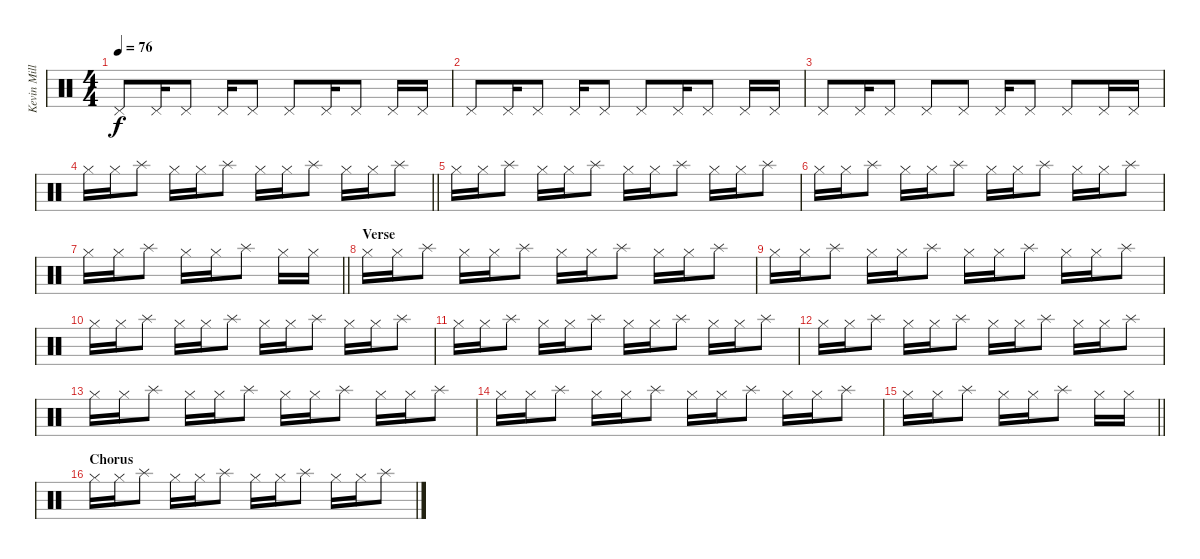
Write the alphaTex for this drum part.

\track ("Kevin Miller (Drums)" "Kevin Mill") {instrument percussion}
\staff {score}
\articulation defaults
\ts (4 4)
\tempo 76
\clef neutral
\ks c "Pedal Hi-Hat (hit)".8{dy f} "Pedal Hi-Hat (hit)".16 "Pedal Hi-Hat (hit)".8 "Pedal Hi-Hat (hit)".16 "Pedal Hi-Hat (hit)".8 "Pedal Hi-Hat (hit)".8 "Pedal Hi-Hat (hit)".16 "Pedal Hi-Hat (hit)".8 "Pedal Hi-Hat (hit)".16 "Pedal Hi-Hat (hit)".16
|
"Pedal Hi-Hat (hit)".8 "Pedal Hi-Hat (hit)".16 "Pedal Hi-Hat (hit)".8 "Pedal Hi-Hat (hit)".16 "Pedal Hi-Hat (hit)".8 "Pedal Hi-Hat (hit)".8 "Pedal Hi-Hat (hit)".16 "Pedal Hi-Hat (hit)".8 "Pedal Hi-Hat (hit)".16 "Pedal Hi-Hat (hit)".16 |
"Pedal Hi-Hat (hit)".8 "Pedal Hi-Hat (hit)".16 "Pedal Hi-Hat (hit)".8 "Pedal Hi-Hat (hit)".8 "Pedal Hi-Hat (hit)".8 "Pedal Hi-Hat (hit)".16 "Pedal Hi-Hat (hit)".8 "Pedal Hi-Hat (hit)".8 "Pedal Hi-Hat (hit)".16 "Pedal Hi-Hat (hit)".16 |
\barLineRight lightlight "Hi-Hat (closed)".16 "Hi-Hat (closed)".16 "Splash (hit)".8 "Hi-Hat (closed)".16 "Hi-Hat (closed)".16 "Splash (hit)".8 "Hi-Hat (closed)".16 "Hi-Hat (closed)".16 "Splash (hit)".8 "Hi-Hat (closed)".16 "Hi-Hat (closed)".16 "Splash (hit)".8
|
"Hi-Hat (closed)".16 "Hi-Hat (closed)".16 "Splash (hit)".8 "Hi-Hat (closed)".16 "Hi-Hat (closed)".16 "Splash (hit)".8 "Hi-Hat (closed)".16 "Hi-Hat (closed)".16 "Splash (hit)".8 "Hi-Hat (closed)".16 "Hi-Hat (closed)".16 "Splash (hit)".8 |
"Hi-Hat (closed)".16 "Hi-Hat (closed)".16 "Splash (hit)".8 "Hi-Hat (closed)".16 "Hi-Hat (closed)".16 "Splash (hit)".8 "Hi-Hat (closed)".16 "Hi-Hat (closed)".16 "Splash (hit)".8 "Hi-Hat (closed)".16 "Hi-Hat (closed)".16 "Splash (hit)".8 |
\barLineRight lightlight "Hi-Hat (closed)".16 "Hi-Hat (closed)".16 "Splash (hit)".8 "Hi-Hat (closed)".16 "Hi-Hat (closed)".16 "Splash (hit)".8 "Hi-Hat (closed)".16 "Hi-Hat (closed)".16
|
\section ("" "Verse")
"Hi-Hat (closed)".16 "Hi-Hat (closed)".16 "Splash (hit)".8 "Hi-Hat (closed)".16 "Hi-Hat (closed)".16 "Splash (hit)".8 "Hi-Hat (closed)".16 "Hi-Hat (closed)".16 "Splash (hit)".8 "Hi-Hat (closed)".16 "Hi-Hat (closed)".16 "Splash (hit)".8 |
"Hi-Hat (closed)".16 "Hi-Hat (closed)".16 "Splash (hit)".8 "Hi-Hat (closed)".16 "Hi-Hat (closed)".16 "Splash (hit)".8 "Hi-Hat (closed)".16 "Hi-Hat (closed)".16 "Splash (hit)".8 "Hi-Hat (closed)".16 "Hi-Hat (closed)".16 "Splash (hit)".8 |
"Hi-Hat (closed)".16 "Hi-Hat (closed)".16 "Splash (hit)".8 "Hi-Hat (closed)".16 "Hi-Hat (closed)".16 "Splash (hit)".8 "Hi-Hat (closed)".16 "Hi-Hat (closed)".16 "Splash (hit)".8 "Hi-Hat (closed)".16 "Hi-Hat (closed)".16 "Splash (hit)".8 |
"Hi-Hat (closed)".16 "Hi-Hat (closed)".16 "Splash (hit)".8 "Hi-Hat (closed)".16 "Hi-Hat (closed)".16 "Splash (hit)".8 "Hi-Hat (closed)".16 "Hi-Hat (closed)".16 "Splash (hit)".8 "Hi-Hat (closed)".16 "Hi-Hat (closed)".16 "Splash (hit)".8 |
"Hi-Hat (closed)".16 "Hi-Hat (closed)".16 "Splash (hit)".8 "Hi-Hat (closed)".16 "Hi-Hat (closed)".16 "Splash (hit)".8 "Hi-Hat (closed)".16 "Hi-Hat (closed)".16 "Splash (hit)".8 "Hi-Hat (closed)".16 "Hi-Hat (closed)".16 "Splash (hit)".8 |
"Hi-Hat (closed)".16 "Hi-Hat (closed)".16 "Splash (hit)".8 "Hi-Hat (closed)".16 "Hi-Hat (closed)".16 "Splash (hit)".8 "Hi-Hat (closed)".16 "Hi-Hat (closed)".16 "Splash (hit)".8 "Hi-Hat (closed)".16 "Hi-Hat (closed)".16 "Splash (hit)".8 |
"Hi-Hat (closed)".16 "Hi-Hat (closed)".16 "Splash (hit)".8 "Hi-Hat (closed)".16 "Hi-Hat (closed)".16 "Splash (hit)".8 "Hi-Hat (closed)".16 "Hi-Hat (closed)".16 "Splash (hit)".8 "Hi-Hat (closed)".16 "Hi-Hat (closed)".16 "Splash (hit)".8 |
\barLineRight lightlight "Hi-Hat (closed)".16 "Hi-Hat (closed)".16 "Splash (hit)".8 "Hi-Hat (closed)".16 "Hi-Hat (closed)".16 "Splash (hit)".8 "Hi-Hat (closed)".16 "Hi-Hat (closed)".16
|
\section ("" "Chorus")
"Hi-Hat (closed)".16 "Hi-Hat (closed)".16 "Splash (hit)".8 "Hi-Hat (closed)".16 "Hi-Hat (closed)".16 "Splash (hit)".8 "Hi-Hat (closed)".16 "Hi-Hat (closed)".16 "Splash (hit)".8 "Hi-Hat (closed)".16 "Hi-Hat (closed)".16 "Splash (hit)".8
